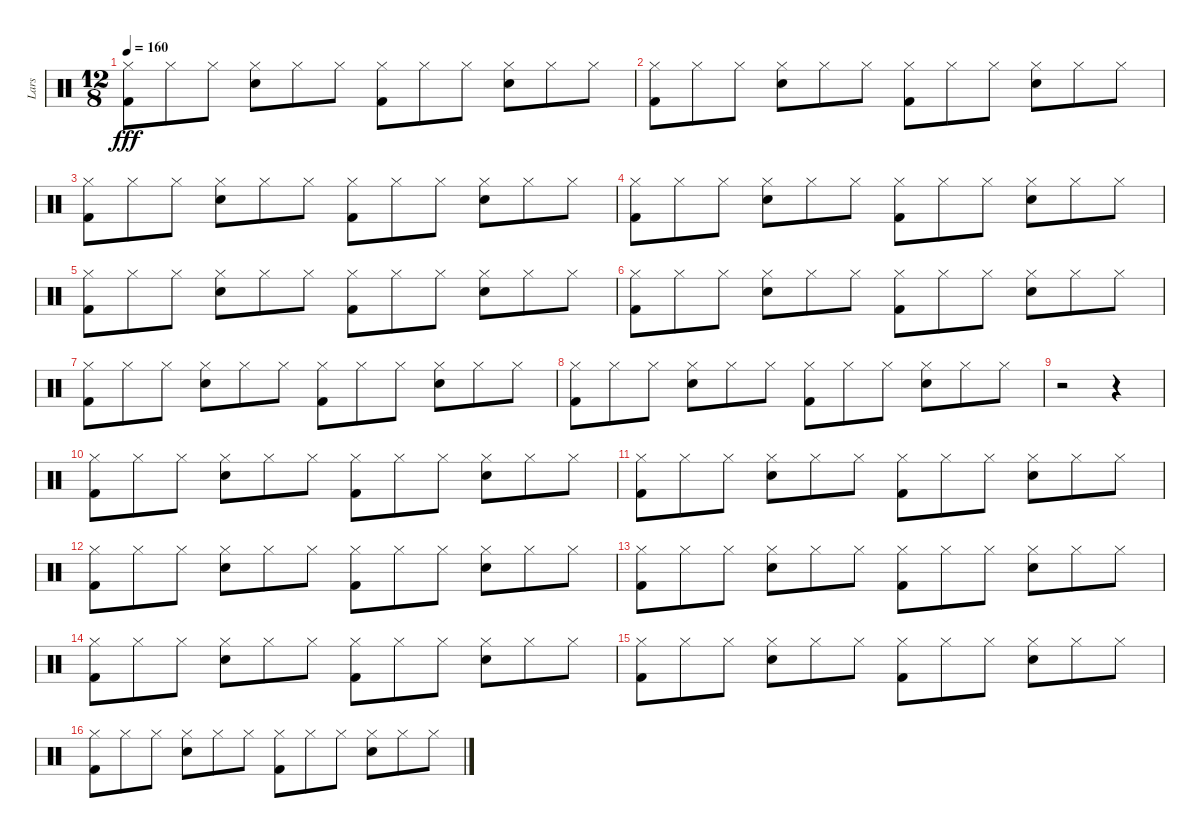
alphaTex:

\track ("Lars" "Lars") {instrument percussion}
\staff {score}
\articulation defaults
\ts (12 8)
\tempo 160
\clef neutral
\ks c
("Hi-Hat (closed)" "Kick (hit) 2").8{dy fff} "Hi-Hat (closed)".8 "Hi-Hat (closed)".8 ("Hi-Hat (closed)" "Electric Snare (hit)").8 "Hi-Hat (closed)".8 "Hi-Hat (closed)".8 ("Hi-Hat (closed)" "Kick (hit) 2").8 "Hi-Hat (closed)".8 "Hi-Hat (closed)".8 ("Hi-Hat (closed)" "Electric Snare (hit)").8 "Hi-Hat (closed)".8 "Hi-Hat (closed)".8 |
("Hi-Hat (closed)" "Kick (hit) 2").8 "Hi-Hat (closed)".8 "Hi-Hat (closed)".8 ("Hi-Hat (closed)" "Electric Snare (hit)").8 "Hi-Hat (closed)".8 "Hi-Hat (closed)".8 ("Hi-Hat (closed)" "Kick (hit) 2").8 "Hi-Hat (closed)".8 "Hi-Hat (closed)".8 ("Hi-Hat (closed)" "Electric Snare (hit)").8 "Hi-Hat (closed)".8 "Hi-Hat (closed)".8 |
("Hi-Hat (closed)" "Kick (hit) 2").8 "Hi-Hat (closed)".8 "Hi-Hat (closed)".8 ("Hi-Hat (closed)" "Electric Snare (hit)").8 "Hi-Hat (closed)".8 "Hi-Hat (closed)".8 ("Hi-Hat (closed)" "Kick (hit) 2").8 "Hi-Hat (closed)".8 "Hi-Hat (closed)".8 ("Hi-Hat (closed)" "Electric Snare (hit)").8 "Hi-Hat (closed)".8 "Hi-Hat (closed)".8 |
("Hi-Hat (closed)" "Kick (hit) 2").8 "Hi-Hat (closed)".8 "Hi-Hat (closed)".8 ("Hi-Hat (closed)" "Electric Snare (hit)").8 "Hi-Hat (closed)".8 "Hi-Hat (closed)".8 ("Hi-Hat (closed)" "Kick (hit) 2").8 "Hi-Hat (closed)".8 "Hi-Hat (closed)".8 ("Hi-Hat (closed)" "Electric Snare (hit)").8 "Hi-Hat (closed)".8 "Hi-Hat (closed)".8 |
("Hi-Hat (closed)" "Kick (hit) 2").8 "Hi-Hat (closed)".8 "Hi-Hat (closed)".8 ("Hi-Hat (closed)" "Electric Snare (hit)").8 "Hi-Hat (closed)".8 "Hi-Hat (closed)".8 ("Hi-Hat (closed)" "Kick (hit) 2").8 "Hi-Hat (closed)".8 "Hi-Hat (closed)".8 ("Hi-Hat (closed)" "Electric Snare (hit)").8 "Hi-Hat (closed)".8 "Hi-Hat (closed)".8 |
("Hi-Hat (closed)" "Kick (hit) 2").8 "Hi-Hat (closed)".8 "Hi-Hat (closed)".8 ("Hi-Hat (closed)" "Electric Snare (hit)").8 "Hi-Hat (closed)".8 "Hi-Hat (closed)".8 ("Hi-Hat (closed)" "Kick (hit) 2").8 "Hi-Hat (closed)".8 "Hi-Hat (closed)".8 ("Hi-Hat (closed)" "Electric Snare (hit)").8 "Hi-Hat (closed)".8 "Hi-Hat (closed)".8 |
("Hi-Hat (closed)" "Kick (hit) 2").8 "Hi-Hat (closed)".8 "Hi-Hat (closed)".8 ("Hi-Hat (closed)" "Electric Snare (hit)").8 "Hi-Hat (closed)".8 "Hi-Hat (closed)".8 ("Hi-Hat (closed)" "Kick (hit) 2").8 "Hi-Hat (closed)".8 "Hi-Hat (closed)".8 ("Hi-Hat (closed)" "Electric Snare (hit)").8 "Hi-Hat (closed)".8 "Hi-Hat (closed)".8 |
("Hi-Hat (closed)" "Kick (hit) 2").8 "Hi-Hat (closed)".8 "Hi-Hat (closed)".8 ("Hi-Hat (closed)" "Electric Snare (hit)").8 "Hi-Hat (closed)".8 "Hi-Hat (closed)".8 ("Hi-Hat (closed)" "Kick (hit) 2").8 "Hi-Hat (closed)".8 "Hi-Hat (closed)".8 ("Hi-Hat (closed)" "Electric Snare (hit)").8 "Hi-Hat (closed)".8 "Hi-Hat (closed)".8 |
r.2 r.4 |
("Hi-Hat (closed)" "Kick (hit) 2").8 "Hi-Hat (closed)".8 "Hi-Hat (closed)".8 ("Hi-Hat (closed)" "Electric Snare (hit)").8 "Hi-Hat (closed)".8 "Hi-Hat (closed)".8 ("Hi-Hat (closed)" "Kick (hit) 2").8 "Hi-Hat (closed)".8 "Hi-Hat (closed)".8 ("Hi-Hat (closed)" "Electric Snare (hit)").8 "Hi-Hat (closed)".8 "Hi-Hat (closed)".8 |
("Hi-Hat (closed)" "Kick (hit) 2").8 "Hi-Hat (closed)".8 "Hi-Hat (closed)".8 ("Hi-Hat (closed)" "Electric Snare (hit)").8 "Hi-Hat (closed)".8 "Hi-Hat (closed)".8 ("Hi-Hat (closed)" "Kick (hit) 2").8 "Hi-Hat (closed)".8 "Hi-Hat (closed)".8 ("Hi-Hat (closed)" "Electric Snare (hit)").8 "Hi-Hat (closed)".8 "Hi-Hat (closed)".8 |
("Hi-Hat (closed)" "Kick (hit) 2").8 "Hi-Hat (closed)".8 "Hi-Hat (closed)".8 ("Hi-Hat (closed)" "Electric Snare (hit)").8 "Hi-Hat (closed)".8 "Hi-Hat (closed)".8 ("Hi-Hat (closed)" "Kick (hit) 2").8 "Hi-Hat (closed)".8 "Hi-Hat (closed)".8 ("Hi-Hat (closed)" "Electric Snare (hit)").8 "Hi-Hat (closed)".8 "Hi-Hat (closed)".8 |
("Hi-Hat (closed)" "Kick (hit) 2").8 "Hi-Hat (closed)".8 "Hi-Hat (closed)".8 ("Hi-Hat (closed)" "Electric Snare (hit)").8 "Hi-Hat (closed)".8 "Hi-Hat (closed)".8 ("Hi-Hat (closed)" "Kick (hit) 2").8 "Hi-Hat (closed)".8 "Hi-Hat (closed)".8 ("Hi-Hat (closed)" "Electric Snare (hit)").8 "Hi-Hat (closed)".8 "Hi-Hat (closed)".8 |
("Hi-Hat (closed)" "Kick (hit) 2").8 "Hi-Hat (closed)".8 "Hi-Hat (closed)".8 ("Hi-Hat (closed)" "Electric Snare (hit)").8 "Hi-Hat (closed)".8 "Hi-Hat (closed)".8 ("Hi-Hat (closed)" "Kick (hit) 2").8 "Hi-Hat (closed)".8 "Hi-Hat (closed)".8 ("Hi-Hat (closed)" "Electric Snare (hit)").8 "Hi-Hat (closed)".8 "Hi-Hat (closed)".8 |
("Hi-Hat (closed)" "Kick (hit) 2").8 "Hi-Hat (closed)".8 "Hi-Hat (closed)".8 ("Hi-Hat (closed)" "Electric Snare (hit)").8 "Hi-Hat (closed)".8 "Hi-Hat (closed)".8 ("Hi-Hat (closed)" "Kick (hit) 2").8 "Hi-Hat (closed)".8 "Hi-Hat (closed)".8 ("Hi-Hat (closed)" "Electric Snare (hit)").8 "Hi-Hat (closed)".8 "Hi-Hat (closed)".8 |
("Hi-Hat (closed)" "Kick (hit) 2").8 "Hi-Hat (closed)".8 "Hi-Hat (closed)".8 ("Hi-Hat (closed)" "Electric Snare (hit)").8 "Hi-Hat (closed)".8 "Hi-Hat (closed)".8 ("Hi-Hat (closed)" "Kick (hit) 2").8 "Hi-Hat (closed)".8 "Hi-Hat (closed)".8 ("Hi-Hat (closed)" "Electric Snare (hit)").8 "Hi-Hat (closed)".8 "Hi-Hat (closed)".8
